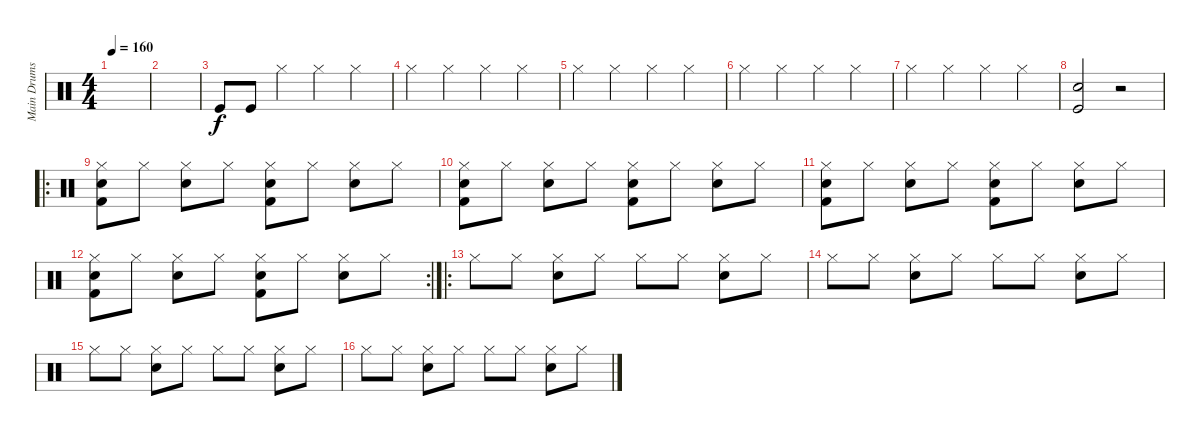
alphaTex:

\track ("Main Drumset" "Main Drums") {instrument percussion}
\staff {score}
\articulation defaults
\ts (4 4)
\tempo 160
\clef neutral
\ks c
|
|
"Kick (hit)".8 "Kick (hit)".8 "Hi-Hat (closed)".4 "Hi-Hat (closed)".4 "Hi-Hat (closed)".4 |
"Hi-Hat (closed)".4 "Hi-Hat (closed)".4 "Hi-Hat (closed)".4 "Hi-Hat (closed)".4 |
"Hi-Hat (closed)".4 "Hi-Hat (closed)".4 "Hi-Hat (closed)".4 "Hi-Hat (closed)".4 |
"Hi-Hat (closed)".4 "Hi-Hat (closed)".4 "Hi-Hat (closed)".4 "Hi-Hat (closed)".4 |
"Hi-Hat (closed)".4 "Hi-Hat (closed)".4 "Hi-Hat (closed)".4 "Hi-Hat (closed)".4 |
("Electric Snare (hit)" "Kick (hit)").2 r.2 |
\ro
("Hi-Hat (closed)" "Electric Snare (hit)" "Kick (hit) 2").8 "Hi-Hat (closed)".8 ("Hi-Hat (closed)" "Electric Snare (hit)").8 "Hi-Hat (closed)".8 ("Hi-Hat (closed)" "Electric Snare (hit)" "Kick (hit) 2").8 "Hi-Hat (closed)".8 ("Hi-Hat (closed)" "Electric Snare (hit)").8 "Hi-Hat (closed)".8 |
("Hi-Hat (closed)" "Electric Snare (hit)" "Kick (hit) 2").8 "Hi-Hat (closed)".8 ("Hi-Hat (closed)" "Electric Snare (hit)").8 "Hi-Hat (closed)".8 ("Hi-Hat (closed)" "Electric Snare (hit)" "Kick (hit) 2").8 "Hi-Hat (closed)".8 ("Hi-Hat (closed)" "Electric Snare (hit)").8 "Hi-Hat (closed)".8 |
("Hi-Hat (closed)" "Electric Snare (hit)" "Kick (hit) 2").8 "Hi-Hat (closed)".8 ("Hi-Hat (closed)" "Electric Snare (hit)").8 "Hi-Hat (closed)".8 ("Hi-Hat (closed)" "Electric Snare (hit)" "Kick (hit) 2").8 "Hi-Hat (closed)".8 ("Hi-Hat (closed)" "Electric Snare (hit)").8 "Hi-Hat (closed)".8 |
\rc 2
("Hi-Hat (closed)" "Electric Snare (hit)" "Kick (hit) 2").8 "Hi-Hat (closed)".8 ("Hi-Hat (closed)" "Electric Snare (hit)").8 "Hi-Hat (closed)".8 ("Hi-Hat (closed)" "Electric Snare (hit)" "Kick (hit) 2").8 "Hi-Hat (closed)".8 ("Hi-Hat (closed)" "Electric Snare (hit)").8 "Hi-Hat (closed)".8 |
\ro "Hi-Hat (closed)".8 "Hi-Hat (closed)".8
("Hi-Hat (closed)" "Electric Snare (hit)").8 "Hi-Hat (closed)".8 "Hi-Hat (closed)".8 "Hi-Hat (closed)".8 ("Hi-Hat (closed)" "Electric Snare (hit)").8 "Hi-Hat (closed)".8 |
"Hi-Hat (closed)".8 "Hi-Hat (closed)".8 ("Hi-Hat (closed)" "Electric Snare (hit)").8 "Hi-Hat (closed)".8 "Hi-Hat (closed)".8 "Hi-Hat (closed)".8 ("Hi-Hat (closed)" "Electric Snare (hit)").8 "Hi-Hat (closed)".8 |
"Hi-Hat (closed)".8 "Hi-Hat (closed)".8 ("Hi-Hat (closed)" "Electric Snare (hit)").8 "Hi-Hat (closed)".8 "Hi-Hat (closed)".8 "Hi-Hat (closed)".8 ("Hi-Hat (closed)" "Electric Snare (hit)").8 "Hi-Hat (closed)".8 |
"Hi-Hat (closed)".8 "Hi-Hat (closed)".8 ("Hi-Hat (closed)" "Electric Snare (hit)").8 "Hi-Hat (closed)".8 "Hi-Hat (closed)".8 "Hi-Hat (closed)".8 ("Hi-Hat (closed)" "Electric Snare (hit)").8 "Hi-Hat (closed)".8
